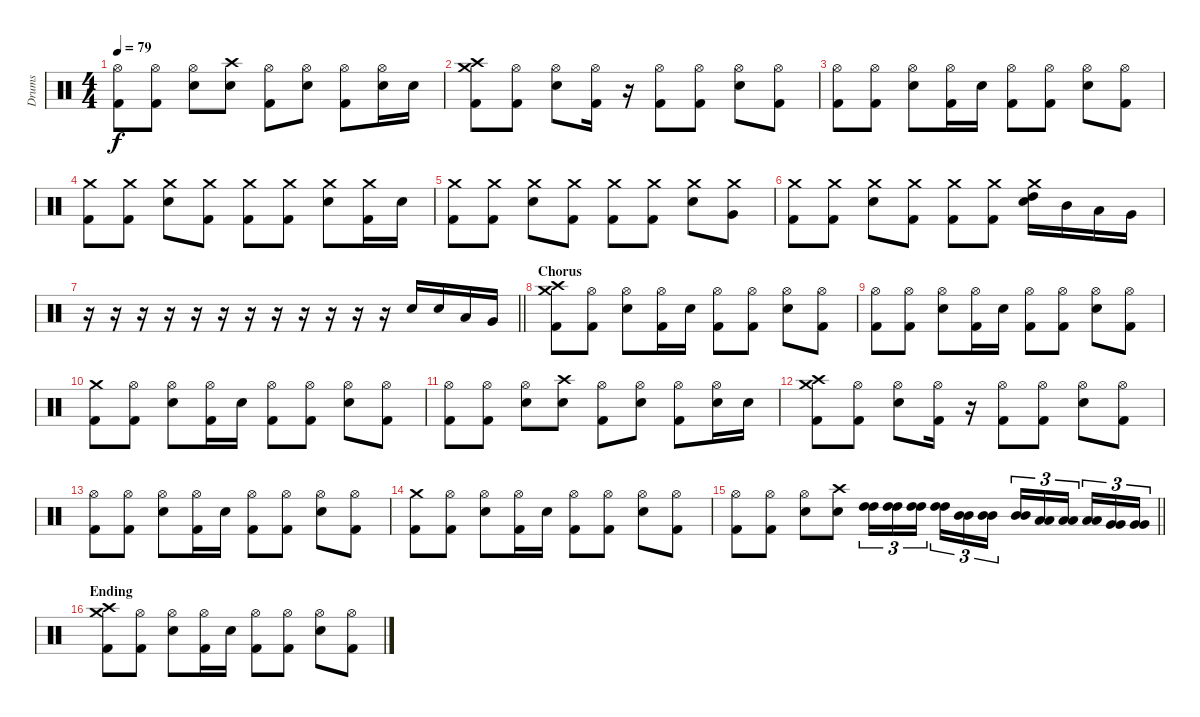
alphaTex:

\track ("Drums" "Drums") {instrument percussion}
\staff {score}
\articulation defaults
\ts (4 4)
\tempo 79
\clef neutral
\ks c
("Hi-Hat (open)" "Kick (hit) 2").8{dy f} ("Hi-Hat (open)" "Kick (hit) 2").8 ("Hi-Hat (open)" "Electric Snare (hit)").8 ("Crash high (hit)" "Electric Snare (hit)").8 ("Hi-Hat (open)" "Kick (hit) 2").8 ("Hi-Hat (open)" "Electric Snare (hit)").8 ("Hi-Hat (open)" "Kick (hit) 2").8 ("Hi-Hat (open)" "Electric Snare (hit)").16 "Electric Snare (hit)".16 |
("Crash high (hit)" "Crash medium (hit)" "Kick (hit) 2").8 ("Hi-Hat (open)" "Kick (hit) 2").8 ("Hi-Hat (open)" "Electric Snare (hit)").8 ("Hi-Hat (open)" "Kick (hit) 2").16 r.16 ("Hi-Hat (open)" "Kick (hit) 2").8 ("Hi-Hat (open)" "Kick (hit) 2").8 ("Hi-Hat (open)" "Electric Snare (hit)").8 ("Hi-Hat (open)" "Kick (hit) 2").8 |
("Hi-Hat (open)" "Kick (hit) 2").8 ("Hi-Hat (open)" "Kick (hit) 2").8 ("Hi-Hat (open)" "Electric Snare (hit)").8 ("Hi-Hat (open)" "Kick (hit) 2").16 "Electric Snare (hit)".16 ("Hi-Hat (open)" "Kick (hit) 2").8 ("Hi-Hat (open)" "Kick (hit) 2").8 ("Hi-Hat (open)" "Electric Snare (hit)").8 ("Hi-Hat (open)" "Kick (hit) 2").8 |
("Crash medium (hit)" "Kick (hit) 2").8 ("Crash medium (hit)" "Kick (hit) 2").8 ("Crash medium (hit)" "Electric Snare (hit)").8 ("Crash medium (hit)" "Kick (hit) 2").8 ("Crash medium (hit)" "Kick (hit) 2").8 ("Crash medium (hit)" "Kick (hit) 2").8 ("Crash medium (hit)" "Electric Snare (hit)").8 ("Crash medium (hit)" "Kick (hit) 2").16 "Electric Snare (hit)".16 |
("Crash medium (hit)" "Kick (hit) 2").8 ("Crash medium (hit)" "Kick (hit) 2").8 ("Crash medium (hit)" "Electric Snare (hit)").8 ("Crash medium (hit)" "Kick (hit) 2").8 ("Crash medium (hit)" "Kick (hit) 2").8 ("Crash medium (hit)" "Kick (hit) 2").8 ("Crash medium (hit)" "Electric Snare (hit)").8 ("Crash medium (hit)" "Very Low Tom (hit)").8 |
("Crash medium (hit)" "Kick (hit) 2").8 ("Crash medium (hit)" "Kick (hit) 2").8 ("Crash medium (hit)" "Electric Snare (hit)").8 ("Crash medium (hit)" "Kick (hit) 2").8 ("Crash medium (hit)" "Kick (hit) 2").8 ("Crash medium (hit)" "Kick (hit) 2").8 ("Crash medium (hit)" "High Tom (hit)" "Electric Snare (hit)").16 "Mid Tom (hit)".16 "Low Tom (hit)".16 "Very Low Tom (hit)".16 |
\barLineRight lightlight
r.16 r.16 r.16 r.16 r.16 r.16 r.16 r.16 r.16 r.16 r.16 r.16 "Electric Snare (hit)".16 "Electric Snare (hit)".16 "Low Tom (hit)".16 "Very Low Tom (hit)".16 |
\section ("" "Chorus")
("Crash high (hit)" "Crash medium (hit)" "Kick (hit) 2").8 ("Hi-Hat (open)" "Kick (hit) 2").8 ("Hi-Hat (open)" "Electric Snare (hit)").8 ("Hi-Hat (open)" "Kick (hit) 2").16 "Electric Snare (hit)".16 ("Hi-Hat (open)" "Kick (hit) 2").8 ("Hi-Hat (open)" "Kick (hit) 2").8 ("Hi-Hat (open)" "Electric Snare (hit)").8 ("Hi-Hat (open)" "Kick (hit) 2").8 |
("Hi-Hat (open)" "Kick (hit) 2").8 ("Hi-Hat (open)" "Kick (hit) 2").8 ("Hi-Hat (open)" "Electric Snare (hit)").8 ("Hi-Hat (open)" "Kick (hit) 2").16 "Electric Snare (hit)".16 ("Hi-Hat (open)" "Kick (hit) 2").8 ("Hi-Hat (open)" "Kick (hit) 2").8 ("Hi-Hat (open)" "Electric Snare (hit)").8 ("Hi-Hat (open)" "Kick (hit) 2").8 |
("Crash medium (hit)" "Kick (hit) 2").8 ("Hi-Hat (open)" "Kick (hit) 2").8 ("Hi-Hat (open)" "Electric Snare (hit)").8 ("Hi-Hat (open)" "Kick (hit) 2").16 "Electric Snare (hit)".16 ("Hi-Hat (open)" "Kick (hit) 2").8 ("Hi-Hat (open)" "Kick (hit) 2").8 ("Hi-Hat (open)" "Electric Snare (hit)").8 ("Hi-Hat (open)" "Kick (hit) 2").8 |
("Hi-Hat (open)" "Kick (hit) 2").8 ("Hi-Hat (open)" "Kick (hit) 2").8 ("Hi-Hat (open)" "Electric Snare (hit)").8 ("Crash high (hit)" "Electric Snare (hit)").8 ("Hi-Hat (open)" "Kick (hit) 2").8 ("Hi-Hat (open)" "Electric Snare (hit)").8 ("Hi-Hat (open)" "Kick (hit) 2").8 ("Hi-Hat (open)" "Electric Snare (hit)").16 "Electric Snare (hit)".16 |
("Crash high (hit)" "Crash medium (hit)" "Kick (hit) 2").8 ("Hi-Hat (open)" "Kick (hit) 2").8 ("Hi-Hat (open)" "Electric Snare (hit)").8 ("Hi-Hat (open)" "Kick (hit) 2").16 r.16 ("Hi-Hat (open)" "Kick (hit) 2").8 ("Hi-Hat (open)" "Kick (hit) 2").8 ("Hi-Hat (open)" "Electric Snare (hit)").8 ("Hi-Hat (open)" "Kick (hit) 2").8 |
("Hi-Hat (open)" "Kick (hit) 2").8 ("Hi-Hat (open)" "Kick (hit) 2").8 ("Hi-Hat (open)" "Electric Snare (hit)").8 ("Hi-Hat (open)" "Kick (hit) 2").16 "Electric Snare (hit)".16 ("Hi-Hat (open)" "Kick (hit) 2").8 ("Hi-Hat (open)" "Kick (hit) 2").8 ("Hi-Hat (open)" "Electric Snare (hit)").8 ("Hi-Hat (open)" "Kick (hit) 2").8 |
("Crash medium (hit)" "Kick (hit) 2").8 ("Hi-Hat (open)" "Kick (hit) 2").8 ("Hi-Hat (open)" "Electric Snare (hit)").8 ("Hi-Hat (open)" "Kick (hit) 2").16 "Electric Snare (hit)".16 ("Hi-Hat (open)" "Kick (hit) 2").8 ("Hi-Hat (open)" "Kick (hit) 2").8 ("Hi-Hat (open)" "Electric Snare (hit)").8 ("Hi-Hat (open)" "Kick (hit) 2").8 |
\barLineRight lightlight
("Hi-Hat (open)" "Kick (hit) 2").8 ("Hi-Hat (open)" "Kick (hit) 2").8 ("Hi-Hat (open)" "Electric Snare (hit)").8 ("Crash high (hit)" "Electric Snare (hit)").8 ("High Tom (hit)" "High Tom (hit)").16{tu (3 2)} ("High Tom (hit)" "High Tom (hit)").16{tu (3 2)} ("High Tom (hit)" "High Tom (hit)").16{tu (3 2) beam splitsecondary} ("High Tom (hit)" "High Tom (hit)").16{tu (3 2)} ("Mid Tom (hit)" "Mid Tom (hit)").16{tu (3 2)} ("Mid Tom (hit)" "Mid Tom (hit)").16{tu (3 2)} ("Mid Tom (hit)" "Mid Tom (hit)").16{tu (3 2)} ("Low Tom (hit)" "Low Tom (hit)").16{tu (3 2)} ("Low Tom (hit)" "Low Tom (hit)").16{tu (3 2) beam splitsecondary} ("Low Tom (hit)" "Low Tom (hit)").16{tu (3 2)} ("Very Low Tom (hit)" "Very Low Tom (hit)").16{tu (3 2)} ("Very Low Tom (hit)" "Very Low Tom (hit)").16{tu (3 2)} |
\section ("" "Ending")
("Crash high (hit)" "Crash medium (hit)" "Kick (hit) 2").8 ("Hi-Hat (open)" "Kick (hit) 2").8 ("Hi-Hat (open)" "Electric Snare (hit)").8 ("Hi-Hat (open)" "Kick (hit) 2").16 "Electric Snare (hit)".16 ("Hi-Hat (open)" "Kick (hit) 2").8 ("Hi-Hat (open)" "Kick (hit) 2").8 ("Hi-Hat (open)" "Electric Snare (hit)").8 ("Hi-Hat (open)" "Kick (hit) 2").8
